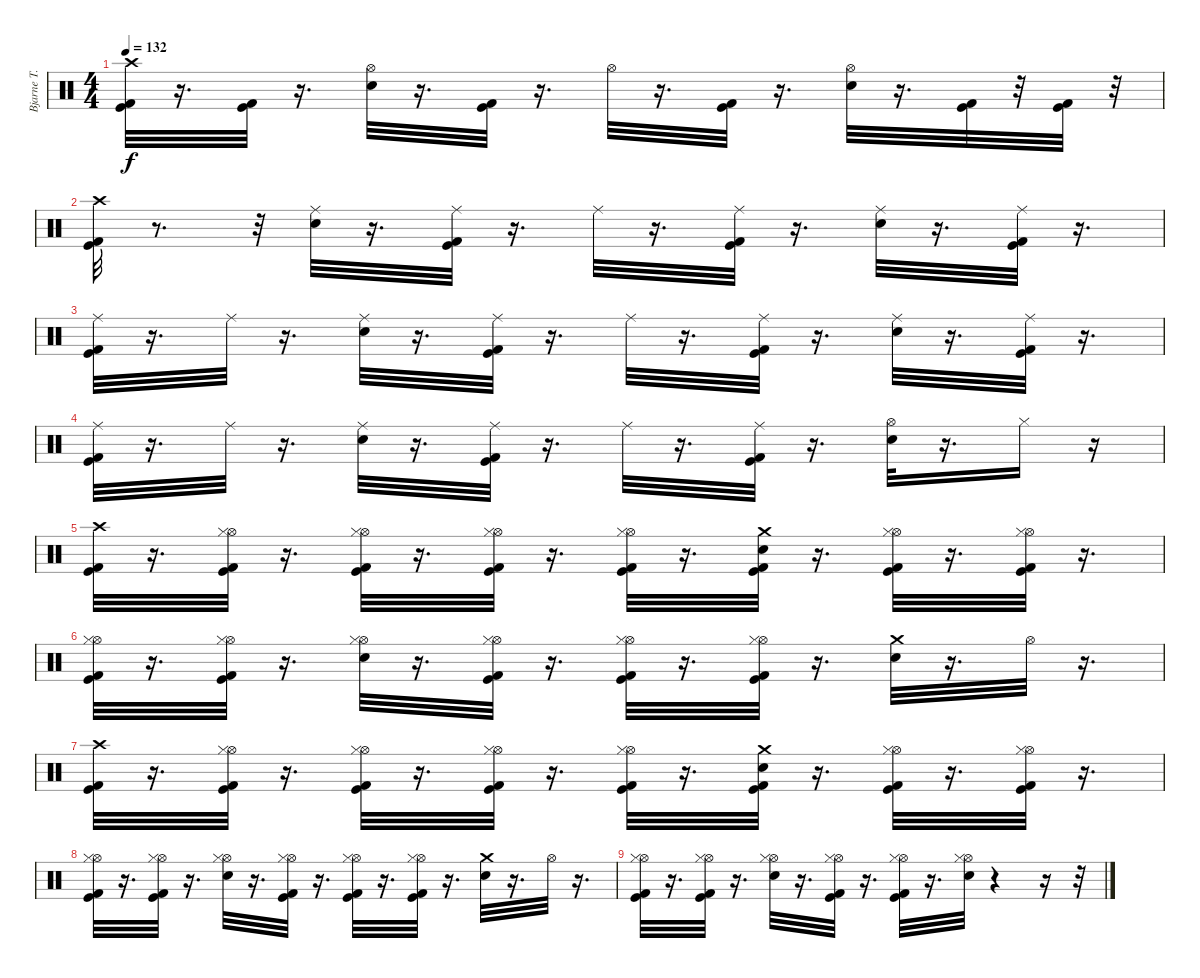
\track ("Bjarne T. Holme" "Bjarne T. ") {instrument percussion}
\staff {score}
\articulation defaults
\ts (4 4)
\tempo 132
\clef neutral
\ks c
("Crash high (hit)" "Kick (hit)" "Kick (hit) 2").32{dy f} r.16{d} ("Kick (hit)" "Kick (hit) 2").32 r.16{d} ("Hi-Hat (open)" "Snare (hit) 2").32 r.16{d} ("Kick (hit)" "Kick (hit) 2").32 r.16{d} "Hi-Hat (open)".32 r.16{d} ("Kick (hit)" "Kick (hit) 2").32 r.16{d} ("Hi-Hat (open)" "Snare (hit) 2").32 r.16{d} ("Kick (hit)" "Kick (hit) 2").32 r.32 ("Kick (hit)" "Kick (hit) 2").32 r.32 |
("Crash high (hit)" "Kick (hit)" "Kick (hit) 2").32 r.8{d} r.32 ("Ride (middle)" "Snare (hit) 2").32 r.16{d} ("Ride (middle)" "Kick (hit)" "Kick (hit) 2").32 r.16{d} "Ride (middle)".32 r.16{d} ("Ride (middle)" "Kick (hit)" "Kick (hit) 2").32 r.16{d} ("Ride (middle)" "Snare (hit) 2").32 r.16{d} ("Ride (middle)" "Kick (hit)" "Kick (hit) 2").32 r.16{d} |
("Ride (middle)" "Kick (hit)" "Kick (hit) 2").32 r.16{d} "Ride (middle)".32 r.16{d} ("Ride (middle)" "Snare (hit) 2").32 r.16{d} ("Ride (middle)" "Kick (hit)" "Kick (hit) 2").32 r.16{d} "Ride (middle)".32 r.16{d} ("Ride (middle)" "Kick (hit)" "Kick (hit) 2").32 r.16{d} ("Ride (middle)" "Snare (hit) 2").32 r.16{d} ("Ride (middle)" "Kick (hit)" "Kick (hit) 2").32 r.16{d} |
("Ride (middle)" "Kick (hit)" "Kick (hit) 2").32 r.16{d} "Ride (middle)".32 r.16{d} ("Ride (middle)" "Snare (hit) 2").32 r.16{d} ("Ride (middle)" "Kick (hit)" "Kick (hit) 2").32 r.16{d} "Ride (middle)".32 r.16{d} ("Ride (middle)" "Kick (hit)" "Kick (hit) 2").32 r.16{d} ("Hi-Hat (open)" "Snare (hit) 2").32 r.16{d} "Hi-Hat (closed)".16 r.16 |
("Crash high (hit)" "Kick (hit)" "Kick (hit) 2").32 r.16{d} ("Hi-Hat (open)" "Hi-Hat (closed)" "Kick (hit)" "Kick (hit) 2").32 r.16{d} ("Hi-Hat (open)" "Hi-Hat (closed)" "Kick (hit)" "Kick (hit) 2").32 r.16{d} ("Hi-Hat (open)" "Hi-Hat (closed)" "Kick (hit)" "Kick (hit) 2").32 r.16{d} ("Hi-Hat (open)" "Hi-Hat (closed)" "Kick (hit)" "Kick (hit) 2").32 r.16{d} ("Crash medium (hit)" "Snare (hit) 2" "Kick (hit)" "Kick (hit) 2").32 r.16{d} ("Hi-Hat (open)" "Hi-Hat (closed)" "Kick (hit)" "Kick (hit) 2").32 r.16{d} ("Hi-Hat (open)" "Hi-Hat (closed)" "Kick (hit)" "Kick (hit) 2").32 r.16{d} |
("Hi-Hat (open)" "Hi-Hat (closed)" "Kick (hit)" "Kick (hit) 2").32 r.16{d} ("Hi-Hat (open)" "Hi-Hat (closed)" "Kick (hit)" "Kick (hit) 2").32 r.16{d} ("Hi-Hat (open)" "Hi-Hat (closed)" "Snare (hit) 2").32 r.16{d} ("Hi-Hat (open)" "Hi-Hat (closed)" "Kick (hit)" "Kick (hit) 2").32 r.16{d} ("Hi-Hat (open)" "Hi-Hat (closed)" "Kick (hit)" "Kick (hit) 2").32 r.16{d} ("Hi-Hat (open)" "Hi-Hat (closed)" "Kick (hit)" "Kick (hit) 2").32 r.16{d} ("Crash medium (hit)" "Snare (hit) 2").32 r.16{d} "Hi-Hat (open)".32 r.16{d} |
("Crash high (hit)" "Kick (hit)" "Kick (hit) 2").32 r.16{d} ("Hi-Hat (open)" "Hi-Hat (closed)" "Kick (hit)" "Kick (hit) 2").32 r.16{d} ("Hi-Hat (open)" "Hi-Hat (closed)" "Kick (hit)" "Kick (hit) 2").32 r.16{d} ("Hi-Hat (open)" "Hi-Hat (closed)" "Kick (hit)" "Kick (hit) 2").32 r.16{d} ("Hi-Hat (open)" "Hi-Hat (closed)" "Kick (hit)" "Kick (hit) 2").32 r.16{d} ("Crash medium (hit)" "Snare (hit) 2" "Kick (hit)" "Kick (hit) 2").32 r.16{d} ("Hi-Hat (open)" "Hi-Hat (closed)" "Kick (hit)" "Kick (hit) 2").32 r.16{d} ("Hi-Hat (open)" "Hi-Hat (closed)" "Kick (hit)" "Kick (hit) 2").32 r.16{d} |
("Hi-Hat (open)" "Hi-Hat (closed)" "Kick (hit)" "Kick (hit) 2").32 r.16{d} ("Hi-Hat (open)" "Hi-Hat (closed)" "Kick (hit)" "Kick (hit) 2").32 r.16{d} ("Hi-Hat (open)" "Hi-Hat (closed)" "Snare (hit) 2").32 r.16{d} ("Hi-Hat (open)" "Hi-Hat (closed)" "Kick (hit)" "Kick (hit) 2").32 r.16{d} ("Hi-Hat (open)" "Hi-Hat (closed)" "Kick (hit)" "Kick (hit) 2").32 r.16{d} ("Hi-Hat (open)" "Hi-Hat (closed)" "Kick (hit)" "Kick (hit) 2").32 r.16{d} ("Crash medium (hit)" "Snare (hit) 2").32 r.16{d} "Hi-Hat (open)".32 r.16{d} |
("Hi-Hat (open)" "Hi-Hat (closed)" "Kick (hit)" "Kick (hit) 2").32 r.16{d} ("Hi-Hat (open)" "Hi-Hat (closed)" "Kick (hit)" "Kick (hit) 2").32 r.16{d} ("Hi-Hat (open)" "Hi-Hat (closed)" "Snare (hit) 2").32 r.16{d} ("Hi-Hat (open)" "Hi-Hat (closed)" "Kick (hit)" "Kick (hit) 2").32 r.16{d} ("Hi-Hat (open)" "Hi-Hat (closed)" "Kick (hit)" "Kick (hit) 2").32 r.16{d} ("Hi-Hat (open)" "Hi-Hat (closed)" "Snare (hit) 2").32 r.4 r.16 r.32
